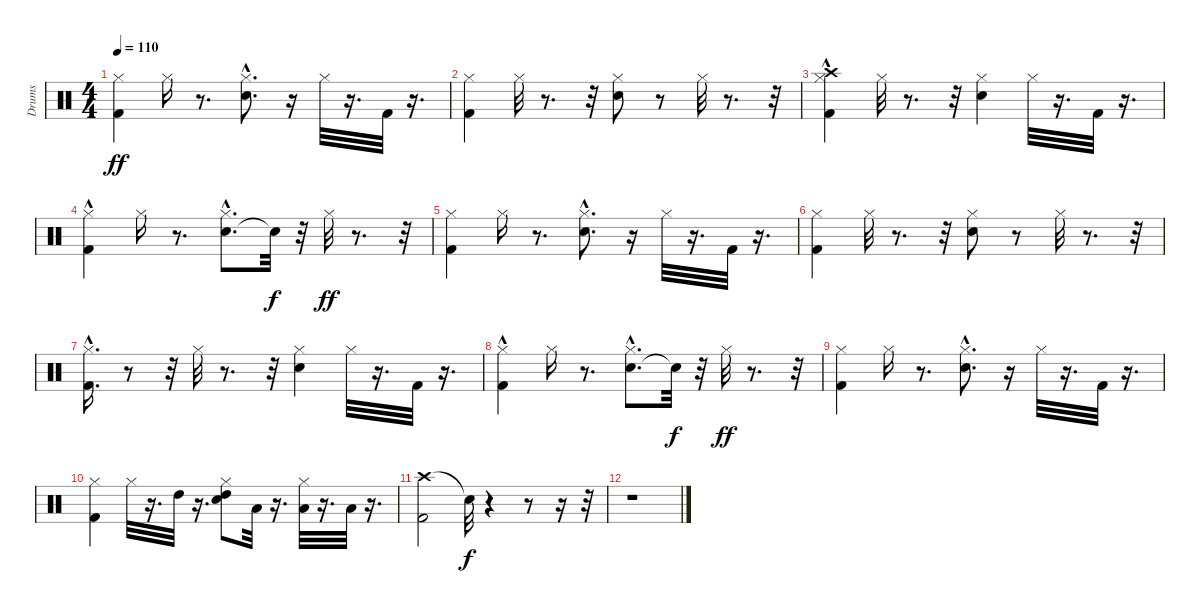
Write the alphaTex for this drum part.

\track ("Drums" "Drums") {instrument percussion}
\staff {score}
\articulation defaults
\ts (4 4)
\tempo 110
\clef neutral
\ks c
("Kick (hit) 2" "Hi-Hat (closed)").4{dy ff} "Hi-Hat (closed)".16 r.8{d} ("Snare (hit) 2"{hac} "Hi-Hat (closed)").8{d} r.16 "Hi-Hat (closed)".32 r.16{d} "Kick (hit) 2".32 r.16{d} |
("Kick (hit) 2" "Hi-Hat (closed)").4 "Hi-Hat (closed)".32 r.8{d} r.32 ("Hi-Hat (closed)" "Snare (hit) 2").8 r.8 "Hi-Hat (closed)".32 r.8{d} r.32 |
("Kick (hit) 2"{hac} "Hi-Hat (closed)" "Crash high (hit)").4 "Hi-Hat (closed)".32 r.8{d} r.32 ("Hi-Hat (closed)" "Snare (hit) 2").4 "Hi-Hat (closed)".32 r.16{d} "Kick (hit) 2".32 r.16{d} |
("Kick (hit) 2"{hac} "Hi-Hat (closed)").4 "Hi-Hat (closed)".16 r.8{d} ("Snare (hit) 2"{hac} "Hi-Hat (closed)").8{d} "Snare (hit)"{t}.32{dy f} r.32 "Hi-Hat (closed)".32{dy ff} r.8{d} r.32 |
("Kick (hit) 2" "Hi-Hat (closed)").4 "Hi-Hat (closed)".16 r.8{d} ("Snare (hit) 2"{hac} "Hi-Hat (closed)").8{d} r.16 "Hi-Hat (closed)".32 r.16{d} "Kick (hit) 2".32 r.16{d} |
("Kick (hit) 2" "Hi-Hat (closed)").4 "Hi-Hat (closed)".32 r.8{d} r.32 ("Hi-Hat (closed)" "Snare (hit) 2").8 r.8 "Hi-Hat (closed)".32 r.8{d} r.32 |
("Kick (hit) 2"{hac} "Hi-Hat (closed)").16{d} r.8 r.32 "Hi-Hat (closed)".32 r.8{d} r.32 ("Hi-Hat (closed)" "Snare (hit) 2").4 "Hi-Hat (closed)".32 r.16{d} "Kick (hit) 2".32 r.16{d} |
("Kick (hit) 2"{hac} "Hi-Hat (closed)").4 "Hi-Hat (closed)".16 r.8{d} ("Snare (hit) 2"{hac} "Hi-Hat (closed)").8{d} "Snare (hit)"{t}.32{dy f} r.32 "Hi-Hat (closed)".32{dy ff} r.8{d} r.32 |
("Kick (hit) 2" "Hi-Hat (closed)").4 "Hi-Hat (closed)".16 r.8{d} ("Snare (hit) 2"{hac} "Hi-Hat (closed)").8{d} r.16 "Hi-Hat (closed)".32 r.16{d} "Kick (hit) 2".32 r.16{d} |
("Kick (hit) 2" "Hi-Hat (closed)").4 "Hi-Hat (closed)".32 r.16{d} "High Tom (hit)".32 r.16{d} ("Hi-Hat (closed)" "High Tom (hit)" "Snare (hit) 2").8 "Low Tom (hit)".32 r.16{d} ("Low Tom (hit)" "Hi-Hat (closed)").32 r.16{d} "Low Floor Tom (hit)".32 r.16{d} |
("Crash high (hit)" "Kick (hit) 2").2 "Snare (hit)"{t}.32{dy f} r.4 r.8 r.16 r.32 |
r.1
